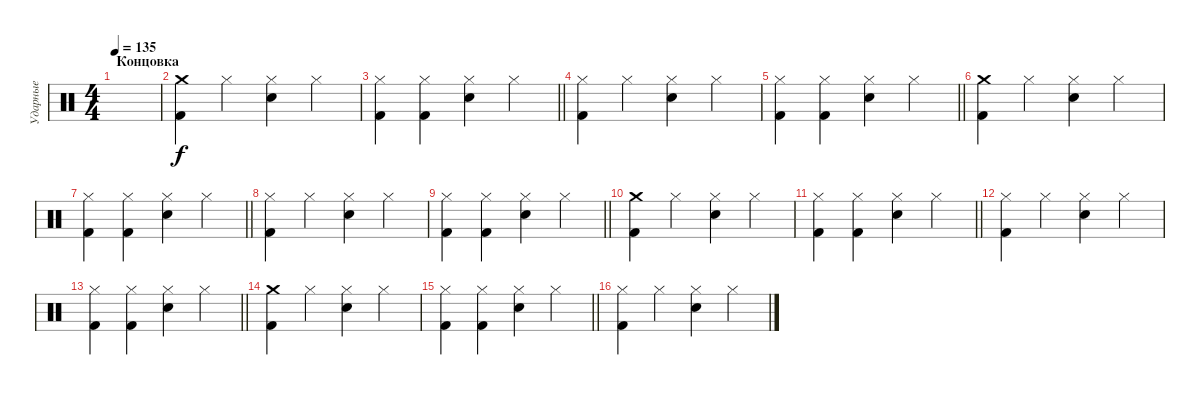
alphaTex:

\track ("Ударные" "Ударные") {instrument percussion}
\staff {score}
\articulation defaults
\ts (4 4)
\section ("" "Концовка")
\tempo 135
\clef neutral
\ks c
|
("Crash medium (hit)" "Kick (hit) 2").4 "Hi-Hat (closed)".4 ("Hi-Hat (closed)" "Electric Snare (hit)").4 "Hi-Hat (closed)".4 |
\barLineRight lightlight
("Hi-Hat (closed)" "Kick (hit) 2").4 ("Hi-Hat (closed)" "Kick (hit) 2").4 ("Hi-Hat (closed)" "Electric Snare (hit)").4 "Hi-Hat (closed)".4 |
("Hi-Hat (closed)" "Kick (hit) 2").4 "Hi-Hat (closed)".4 ("Hi-Hat (closed)" "Electric Snare (hit)").4 "Hi-Hat (closed)".4 |
\barLineRight lightlight
("Hi-Hat (closed)" "Kick (hit) 2").4 ("Hi-Hat (closed)" "Kick (hit) 2").4 ("Hi-Hat (closed)" "Electric Snare (hit)").4 "Hi-Hat (closed)".4 |
("Crash medium (hit)" "Kick (hit) 2").4 "Hi-Hat (closed)".4 ("Hi-Hat (closed)" "Electric Snare (hit)").4 "Hi-Hat (closed)".4 |
\barLineRight lightlight
("Hi-Hat (closed)" "Kick (hit) 2").4 ("Hi-Hat (closed)" "Kick (hit) 2").4 ("Hi-Hat (closed)" "Electric Snare (hit)").4 "Hi-Hat (closed)".4 |
("Hi-Hat (closed)" "Kick (hit) 2").4 "Hi-Hat (closed)".4 ("Hi-Hat (closed)" "Electric Snare (hit)").4 "Hi-Hat (closed)".4 |
\barLineRight lightlight
("Hi-Hat (closed)" "Kick (hit) 2").4 ("Hi-Hat (closed)" "Kick (hit) 2").4 ("Hi-Hat (closed)" "Electric Snare (hit)").4 "Hi-Hat (closed)".4 |
("Crash medium (hit)" "Kick (hit) 2").4 "Hi-Hat (closed)".4 ("Hi-Hat (closed)" "Electric Snare (hit)").4 "Hi-Hat (closed)".4 |
\barLineRight lightlight
("Hi-Hat (closed)" "Kick (hit) 2").4 ("Hi-Hat (closed)" "Kick (hit) 2").4 ("Hi-Hat (closed)" "Electric Snare (hit)").4 "Hi-Hat (closed)".4 |
("Hi-Hat (closed)" "Kick (hit) 2").4 "Hi-Hat (closed)".4 ("Hi-Hat (closed)" "Electric Snare (hit)").4 "Hi-Hat (closed)".4 |
\barLineRight lightlight
("Hi-Hat (closed)" "Kick (hit) 2").4 ("Hi-Hat (closed)" "Kick (hit) 2").4 ("Hi-Hat (closed)" "Electric Snare (hit)").4 "Hi-Hat (closed)".4 |
("Crash medium (hit)" "Kick (hit) 2").4 "Hi-Hat (closed)".4 ("Hi-Hat (closed)" "Electric Snare (hit)").4 "Hi-Hat (closed)".4 |
\barLineRight lightlight
("Hi-Hat (closed)" "Kick (hit) 2").4 ("Hi-Hat (closed)" "Kick (hit) 2").4 ("Hi-Hat (closed)" "Electric Snare (hit)").4 "Hi-Hat (closed)".4 |
("Hi-Hat (closed)" "Kick (hit) 2").4 "Hi-Hat (closed)".4 ("Hi-Hat (closed)" "Electric Snare (hit)").4 "Hi-Hat (closed)".4
